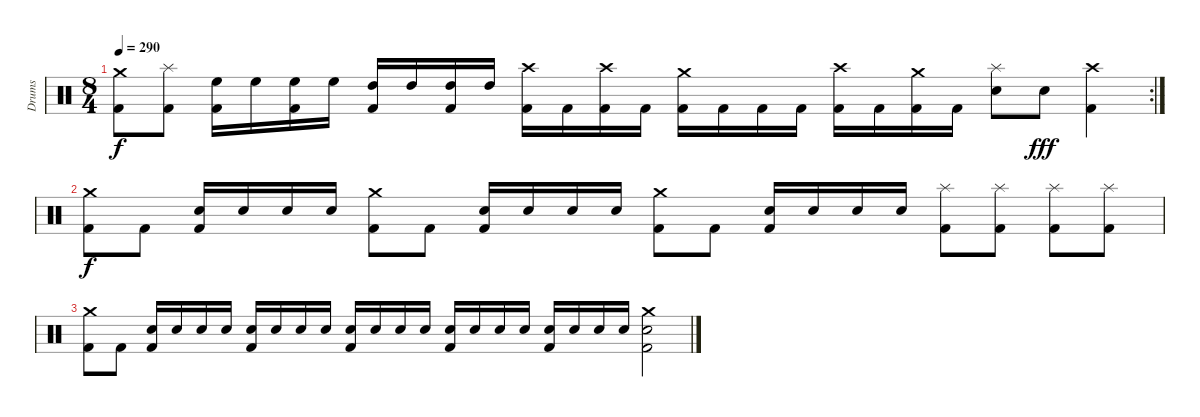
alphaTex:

\track ("Drums" "Drums") {instrument percussion}
\staff {score}
\articulation defaults
\rc 2
\ts (8 4)
\tempo 290
\clef neutral
\ks c
("Crash medium (hit)" "Kick (hit) 2").8{dy f} ("Splash (hit)" "Kick (hit) 2").8 ("High Floor Tom (hit)" "Kick (hit) 2").16 "High Floor Tom (hit)".16 ("High Floor Tom (hit)" "Kick (hit) 2").16 "High Floor Tom (hit)".16 ("High Tom (hit)" "Kick (hit) 2").16 "High Tom (hit)".16 ("High Tom (hit)" "Kick (hit) 2").16 "High Tom (hit)".16 ("Crash high (hit)" "Kick (hit) 2").16 "Kick (hit) 2".16 ("Crash high (hit)" "Kick (hit) 2").16 "Kick (hit) 2".16 ("Crash medium (hit)" "Kick (hit) 2").16 "Kick (hit) 2".16 "Kick (hit) 2".16 "Kick (hit) 2".16 ("Crash high (hit)" "Kick (hit) 2").16 "Kick (hit) 2".16 ("Crash medium (hit)" "Kick (hit) 2").16 "Kick (hit) 2".16 ("Splash (hit)" "Snare (hit) 2").8 "Snare (hit) 2".8{dy fff} ("Crash high (hit)" "Kick (hit) 2").4 |
("Crash medium (hit)" "Kick (hit) 2").8{dy f} "Kick (hit) 2".8 ("Snare (hit) 2" "Kick (hit) 2").16 "Snare (hit) 2".16 "Snare (hit) 2".16 "Snare (hit) 2".16 ("Crash medium (hit)" "Kick (hit) 2").8 "Kick (hit) 2".8 ("Snare (hit) 2" "Kick (hit) 2").16 "Snare (hit) 2".16 "Snare (hit) 2".16 "Snare (hit) 2".16 ("Crash medium (hit)" "Kick (hit) 2").8 "Kick (hit) 2".8 ("Snare (hit) 2" "Kick (hit) 2").16 "Snare (hit) 2".16 "Snare (hit) 2".16 "Snare (hit) 2".16 ("Splash (hit)" "Kick (hit) 2").8 ("Splash (hit)" "Kick (hit) 2").8 ("Splash (hit)" "Kick (hit) 2").8 ("Splash (hit)" "Kick (hit) 2").8 |
("Crash medium (hit)" "Kick (hit) 2").8 "Kick (hit) 2".8 ("Snare (hit) 2" "Kick (hit) 2").16 "Snare (hit) 2".16 "Snare (hit) 2".16 "Snare (hit) 2".16 ("Snare (hit) 2" "Kick (hit) 2").16 "Snare (hit) 2".16 "Snare (hit) 2".16 "Snare (hit) 2".16 ("Snare (hit) 2" "Kick (hit) 2").16 "Snare (hit) 2".16 "Snare (hit) 2".16 "Snare (hit) 2".16 ("Snare (hit) 2" "Kick (hit) 2").16 "Snare (hit) 2".16 "Snare (hit) 2".16 "Snare (hit) 2".16 ("Snare (hit) 2" "Kick (hit) 2").16 "Snare (hit) 2".16 "Snare (hit) 2".16 "Snare (hit) 2".16 ("Crash medium (hit)" "Snare (hit) 2" "Kick (hit) 2").2
